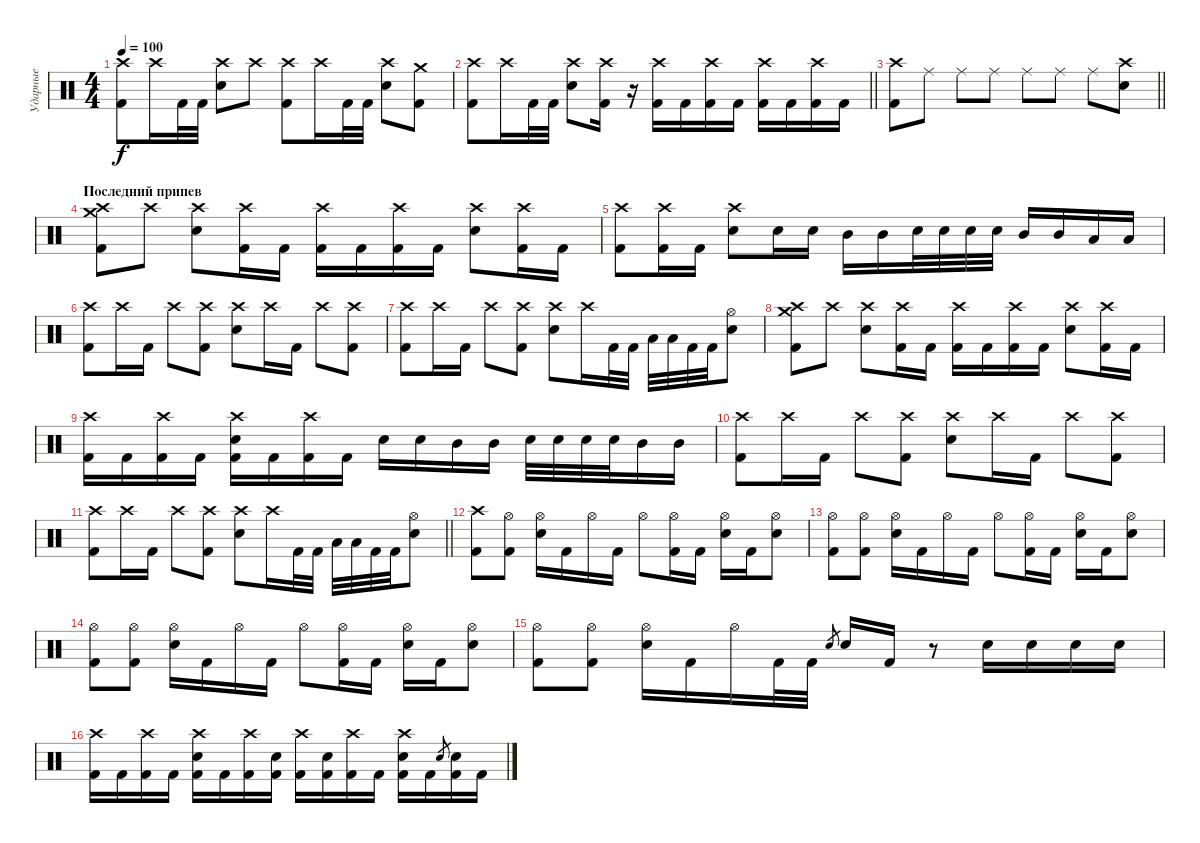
\track ("Ударные" "Ударные") {instrument percussion}
\staff {score}
\articulation defaults
\ts (4 4)
\tempo 100
\clef neutral
\ks c
("Crash high (hit)" "Kick (hit) 2").8{dy f} "Crash high (hit)".16 "Kick (hit) 2".32 "Kick (hit) 2".32 ("Crash high (hit)" "Snare (hit) 2").8 "Crash high (hit)".8 ("Crash high (hit)" "Kick (hit) 2").8 "Crash high (hit)".16 "Kick (hit) 2".32 "Kick (hit) 2".32 ("Crash high (hit)" "Snare (hit) 2").8 ("Crash medium (hit)" "Kick (hit) 2").8 |
\barLineRight lightlight
("Crash high (hit)" "Kick (hit) 2").8 "Crash high (hit)".16 "Kick (hit) 2".32 "Kick (hit) 2".32 ("Crash high (hit)" "Snare (hit) 2").8 ("Kick (hit) 2" "Crash high (hit)").16 r.16 ("Kick (hit) 2" "Crash high (hit)").16 "Kick (hit) 2".16 ("Kick (hit) 2" "Crash high (hit)").16 "Kick (hit) 2".16 ("Kick (hit) 2" "Crash high (hit)").16 "Kick (hit) 2".16 ("Kick (hit) 2" "Crash high (hit)").16 "Kick (hit) 2".16 |
\barLineRight lightlight
("Kick (hit) 2" "Crash high (hit)").8 "Ride (middle)".8 "Ride (middle)".8 "Ride (middle)".8 "Ride (middle)".8 "Ride (middle)".8 "Ride (middle)".8 ("Snare (hit) 2" "Crash high (hit)").8 |
\section ("" "Последний припев")
("Kick (hit) 2" "Crash high (hit)" "Crash medium (hit)").8 "Crash high (hit)".8 ("Crash high (hit)" "Snare (hit) 2").8 ("Crash high (hit)" "Kick (hit) 2").16 "Kick (hit) 2".16 ("Kick (hit) 2" "Crash high (hit)").16 "Kick (hit) 2".16 ("Kick (hit) 2" "Crash high (hit)").16 "Kick (hit) 2".16 ("Snare (hit) 2" "Crash high (hit)").8 ("Crash high (hit)" "Kick (hit) 2").16 "Kick (hit) 2".16 |
("Kick (hit) 2" "Crash high (hit)").8 ("Kick (hit) 2" "Crash high (hit)").16 "Kick (hit) 2".16 ("Crash high (hit)" "Snare (hit) 2").8 "Snare (hit) 2".16 "Snare (hit) 2".16 "Mid Tom (hit)".16 "Mid Tom (hit)".16 "Snare (hit) 2".32 "Snare (hit) 2".32 "Snare (hit) 2".32 "Snare (hit) 2".32 "Mid Tom (hit)".16 "Mid Tom (hit)".16 "Low Tom (hit)".16 "Low Tom (hit)".16 |
("Crash high (hit)" "Kick (hit) 2").8 "Crash high (hit)".16 "Kick (hit) 2".16 "Crash high (hit)".8 ("Crash high (hit)" "Kick (hit) 2").8 ("Crash high (hit)" "Snare (hit) 2").8 "Crash high (hit)".16 "Kick (hit) 2".16 "Crash high (hit)".8 ("Kick (hit) 2" "Crash high (hit)").8 |
("Crash high (hit)" "Kick (hit) 2").8 "Crash high (hit)".16 "Kick (hit) 2".16 "Crash high (hit)".8 ("Crash high (hit)" "Kick (hit) 2").8 ("Crash high (hit)" "Snare (hit) 2").8 "Crash high (hit)".16 "Kick (hit) 2".32 "Kick (hit) 2".32 "Low Tom (hit)".32 "Low Floor Tom (hit)".32 "Kick (hit) 2".32 "Kick (hit) 2".32 ("Hi-Hat (open)" "Snare (hit) 2").8 |
("Kick (hit) 2" "Crash high (hit)" "Crash medium (hit)").8 "Crash high (hit)".8 ("Crash high (hit)" "Snare (hit) 2").8 ("Crash high (hit)" "Kick (hit) 2").16 "Kick (hit) 2".16 ("Kick (hit) 2" "Crash high (hit)").16 "Kick (hit) 2".16 ("Kick (hit) 2" "Crash high (hit)").16 "Kick (hit) 2".16 ("Snare (hit) 2" "Crash high (hit)").8 ("Crash high (hit)" "Kick (hit) 2").16 "Kick (hit) 2".16 |
("Kick (hit) 2" "Crash high (hit)").16 "Kick (hit) 2".16 ("Kick (hit) 2" "Crash high (hit)").16 "Kick (hit) 2".16 ("Crash high (hit)" "Snare (hit) 2" "Kick (hit) 2").16 "Kick (hit) 2".16 ("Kick (hit) 2" "Crash high (hit)").16 "Kick (hit) 2".16 "Snare (hit) 2".16 "Snare (hit) 2".16 "Mid Tom (hit)".16 "Mid Tom (hit)".16 "Snare (hit) 2".32 "Snare (hit) 2".32 "Snare (hit) 2".32 "Snare (hit) 2".32 "Mid Tom (hit)".16 "Mid Tom (hit)".16 |
("Crash high (hit)" "Kick (hit) 2").8 "Crash high (hit)".16 "Kick (hit) 2".16 "Crash high (hit)".8 ("Crash high (hit)" "Kick (hit) 2").8 ("Crash high (hit)" "Snare (hit) 2").8 "Crash high (hit)".16 "Kick (hit) 2".16 "Crash high (hit)".8 ("Kick (hit) 2" "Crash high (hit)").8 |
\barLineRight lightlight
("Crash high (hit)" "Kick (hit) 2").8 "Crash high (hit)".16 "Kick (hit) 2".16 "Crash high (hit)".8 ("Crash high (hit)" "Kick (hit) 2").8 ("Crash high (hit)" "Snare (hit) 2").8 "Crash high (hit)".16 "Kick (hit) 2".32 "Kick (hit) 2".32 "Low Tom (hit)".32 "Low Floor Tom (hit)".32 "Kick (hit) 2".32 "Kick (hit) 2".32 ("Hi-Hat (open)" "Snare (hit) 2").8 |
("Crash high (hit)" "Kick (hit) 2").8 ("Hi-Hat (open)" "Kick (hit) 2").8 ("Hi-Hat (open)" "Snare (hit) 2").16 "Kick (hit) 2".16 "Hi-Hat (open)".16 "Kick (hit) 2".16 "Hi-Hat (open)".8 ("Hi-Hat (open)" "Kick (hit) 2").16 "Kick (hit) 2".16 ("Hi-Hat (open)" "Snare (hit) 2").16 "Kick (hit) 2".16 ("Hi-Hat (open)" "Snare (hit) 2").8 |
("Hi-Hat (open)" "Kick (hit) 2").8 ("Hi-Hat (open)" "Kick (hit) 2").8 ("Hi-Hat (open)" "Snare (hit) 2").16 "Kick (hit) 2".16 "Hi-Hat (open)".16 "Kick (hit) 2".16 "Hi-Hat (open)".8 ("Hi-Hat (open)" "Kick (hit) 2").16 "Kick (hit) 2".16 ("Hi-Hat (open)" "Snare (hit) 2").16 "Kick (hit) 2".16 ("Hi-Hat (open)" "Snare (hit) 2").8 |
("Hi-Hat (open)" "Kick (hit) 2").8 ("Hi-Hat (open)" "Kick (hit) 2").8 ("Hi-Hat (open)" "Snare (hit) 2").16 "Kick (hit) 2".16 "Hi-Hat (open)".16 "Kick (hit) 2".16 "Hi-Hat (open)".8 ("Hi-Hat (open)" "Kick (hit) 2").16 "Kick (hit) 2".16 ("Hi-Hat (open)" "Snare (hit) 2").16 "Kick (hit) 2".16 ("Hi-Hat (open)" "Snare (hit) 2").8 |
("Hi-Hat (open)" "Kick (hit) 2").8 ("Hi-Hat (open)" "Kick (hit) 2").8 ("Hi-Hat (open)" "Snare (hit) 2").16 "Kick (hit) 2".16 "Hi-Hat (open)".16 "Kick (hit) 2".32 "Kick (hit) 2".32 "Snare (hit) 2".8{gr} "Snare (hit) 2".16 "Kick (hit) 2".16 r.8 "Snare (hit) 2".16 "Snare (hit) 2".16 "Snare (hit) 2".16 "Snare (hit) 2".16 |
("Crash high (hit)" "Kick (hit) 2").16 "Kick (hit) 2".16 ("Crash high (hit)" "Kick (hit) 2").16 "Kick (hit) 2".16 ("Crash high (hit)" "Kick (hit) 2" "Snare (hit) 2").16 "Kick (hit) 2".16 ("Crash high (hit)" "Kick (hit) 2").16 ("Kick (hit) 2" "Snare (hit) 2").16 ("Crash high (hit)" "Kick (hit) 2").16 ("Kick (hit) 2" "Snare (hit) 2").16 ("Crash high (hit)" "Kick (hit) 2").16 "Kick (hit) 2".16 ("Crash high (hit)" "Kick (hit) 2" "Snare (hit) 2").16 "Kick (hit) 2".16 "Snare (hit) 2".8{gr} ("Kick (hit) 2" "Snare (hit) 2").16 "Kick (hit) 2".16
